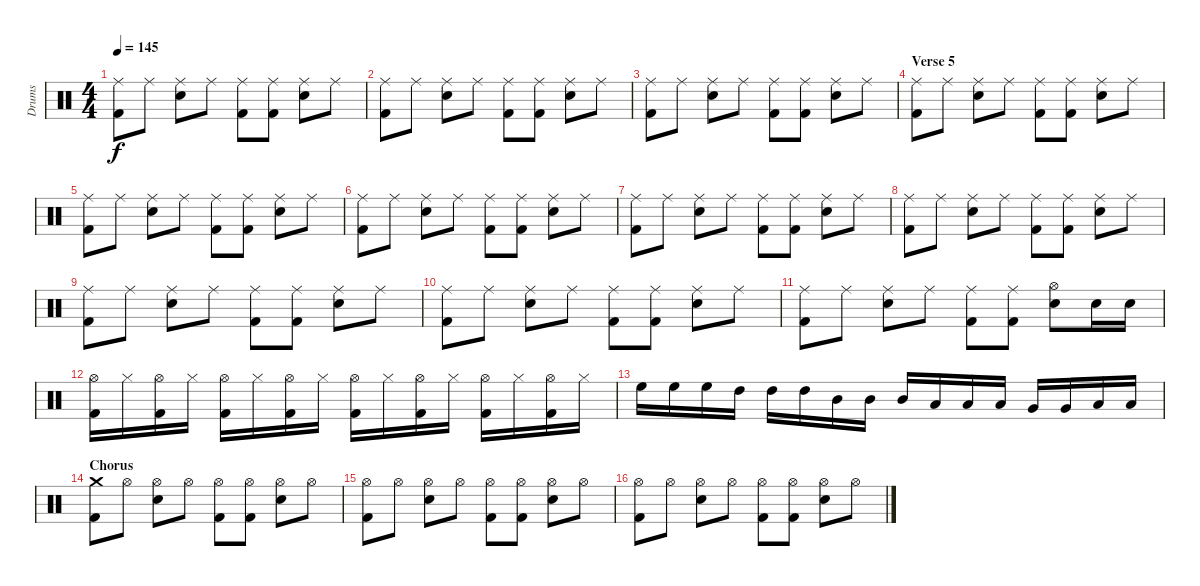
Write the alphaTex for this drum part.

\track ("Drums" "Drums") {instrument percussion}
\staff {score}
\articulation defaults
\ts (4 4)
\tempo 145
\clef neutral
\ks c
("Ride (middle)" "Kick (hit) 2").8{dy f} "Ride (middle)".8 ("Ride (middle)" "Electric Snare (hit)").8 "Ride (middle)".8 ("Ride (middle)" "Kick (hit) 2").8 ("Ride (middle)" "Kick (hit) 2").8 ("Ride (middle)" "Electric Snare (hit)").8 "Ride (middle)".8 |
("Ride (middle)" "Kick (hit) 2").8 "Ride (middle)".8 ("Ride (middle)" "Electric Snare (hit)").8 "Ride (middle)".8 ("Ride (middle)" "Kick (hit) 2").8 ("Ride (middle)" "Kick (hit) 2").8 ("Ride (middle)" "Electric Snare (hit)").8 "Ride (middle)".8 |
("Ride (middle)" "Kick (hit) 2").8 "Ride (middle)".8 ("Ride (middle)" "Electric Snare (hit)").8 "Ride (middle)".8 ("Ride (middle)" "Kick (hit) 2").8 ("Ride (middle)" "Kick (hit) 2").8 ("Ride (middle)" "Electric Snare (hit)").8 "Ride (middle)".8 |
\section ("" "Verse 5")
("Ride (middle)" "Kick (hit) 2").8 "Ride (middle)".8 ("Ride (middle)" "Electric Snare (hit)").8 "Ride (middle)".8 ("Ride (middle)" "Kick (hit) 2").8 ("Ride (middle)" "Kick (hit) 2").8 ("Ride (middle)" "Electric Snare (hit)").8 "Ride (middle)".8 |
("Ride (middle)" "Kick (hit) 2").8 "Ride (middle)".8 ("Ride (middle)" "Electric Snare (hit)").8 "Ride (middle)".8 ("Ride (middle)" "Kick (hit) 2").8 ("Ride (middle)" "Kick (hit) 2").8 ("Ride (middle)" "Electric Snare (hit)").8 "Ride (middle)".8 |
("Ride (middle)" "Kick (hit) 2").8 "Ride (middle)".8 ("Ride (middle)" "Electric Snare (hit)").8 "Ride (middle)".8 ("Ride (middle)" "Kick (hit) 2").8 ("Ride (middle)" "Kick (hit) 2").8 ("Ride (middle)" "Electric Snare (hit)").8 "Ride (middle)".8 |
("Ride (middle)" "Kick (hit) 2").8 "Ride (middle)".8 ("Ride (middle)" "Electric Snare (hit)").8 "Ride (middle)".8 ("Ride (middle)" "Kick (hit) 2").8 ("Ride (middle)" "Kick (hit) 2").8 ("Ride (middle)" "Electric Snare (hit)").8 "Ride (middle)".8 |
("Ride (middle)" "Kick (hit) 2").8 "Ride (middle)".8 ("Ride (middle)" "Electric Snare (hit)").8 "Ride (middle)".8 ("Ride (middle)" "Kick (hit) 2").8 ("Ride (middle)" "Kick (hit) 2").8 ("Ride (middle)" "Electric Snare (hit)").8 "Ride (middle)".8 |
("Ride (middle)" "Kick (hit) 2").8 "Ride (middle)".8 ("Ride (middle)" "Electric Snare (hit)").8 "Ride (middle)".8 ("Ride (middle)" "Kick (hit) 2").8 ("Ride (middle)" "Kick (hit) 2").8 ("Ride (middle)" "Electric Snare (hit)").8 "Ride (middle)".8 |
("Ride (middle)" "Kick (hit) 2").8 "Ride (middle)".8 ("Ride (middle)" "Electric Snare (hit)").8 "Ride (middle)".8 ("Ride (middle)" "Kick (hit) 2").8 ("Ride (middle)" "Kick (hit) 2").8 ("Ride (middle)" "Electric Snare (hit)").8 "Ride (middle)".8 |
("Ride (middle)" "Kick (hit) 2").8 "Ride (middle)".8 ("Ride (middle)" "Electric Snare (hit)").8 "Ride (middle)".8 ("Ride (middle)" "Kick (hit) 2").8 ("Ride (middle)" "Kick (hit) 2").8 ("Hi-Hat (open)" "Electric Snare (hit)").8 "Electric Snare (hit)".16 "Electric Snare (hit)".16 |
("Hi-Hat (open)" "Kick (hit) 2").16 "Hi-Hat (closed)".16 ("Hi-Hat (open)" "Kick (hit) 2").16 "Hi-Hat (closed)".16 ("Hi-Hat (open)" "Kick (hit) 2").16 "Hi-Hat (closed)".16 ("Hi-Hat (open)" "Kick (hit) 2").16 "Hi-Hat (closed)".16 ("Hi-Hat (open)" "Kick (hit) 2").16 "Hi-Hat (closed)".16 ("Hi-Hat (open)" "Kick (hit) 2").16 "Hi-Hat (closed)".16 ("Hi-Hat (open)" "Kick (hit) 2").16 "Hi-Hat (closed)".16 ("Hi-Hat (open)" "Kick (hit) 2").16 "Hi-Hat (closed)".16 |
"High Floor Tom (hit)".16 "High Floor Tom (hit)".16 "High Floor Tom (hit)".16 "High Tom (hit)".16 "High Tom (hit)".16 "High Tom (hit)".16 "Mid Tom (hit)".16 "Mid Tom (hit)".16 "Mid Tom (hit)".16 "Low Tom (hit)".16 "Low Tom (hit)".16 "Low Tom (hit)".16 "Very Low Tom (hit)".16 "Very Low Tom (hit)".16 "Low Floor Tom (hit)".16 "Low Floor Tom (hit)".16 |
\section ("" "Chorus")
("Crash medium (hit)" "Kick (hit) 2").8 "Hi-Hat (open)".8 ("Hi-Hat (open)" "Electric Snare (hit)").8 "Hi-Hat (open)".8 ("Hi-Hat (open)" "Kick (hit) 2").8 ("Hi-Hat (open)" "Kick (hit) 2").8 ("Hi-Hat (open)" "Electric Snare (hit)").8 "Hi-Hat (open)".8 |
("Hi-Hat (open)" "Kick (hit) 2").8 "Hi-Hat (open)".8 ("Hi-Hat (open)" "Electric Snare (hit)").8 "Hi-Hat (open)".8 ("Hi-Hat (open)" "Kick (hit) 2").8 ("Hi-Hat (open)" "Kick (hit) 2").8 ("Hi-Hat (open)" "Electric Snare (hit)").8 "Hi-Hat (open)".8 |
("Hi-Hat (open)" "Kick (hit) 2").8 "Hi-Hat (open)".8 ("Hi-Hat (open)" "Electric Snare (hit)").8 "Hi-Hat (open)".8 ("Hi-Hat (open)" "Kick (hit) 2").8 ("Hi-Hat (open)" "Kick (hit) 2").8 ("Hi-Hat (open)" "Electric Snare (hit)").8 "Hi-Hat (open)".8
